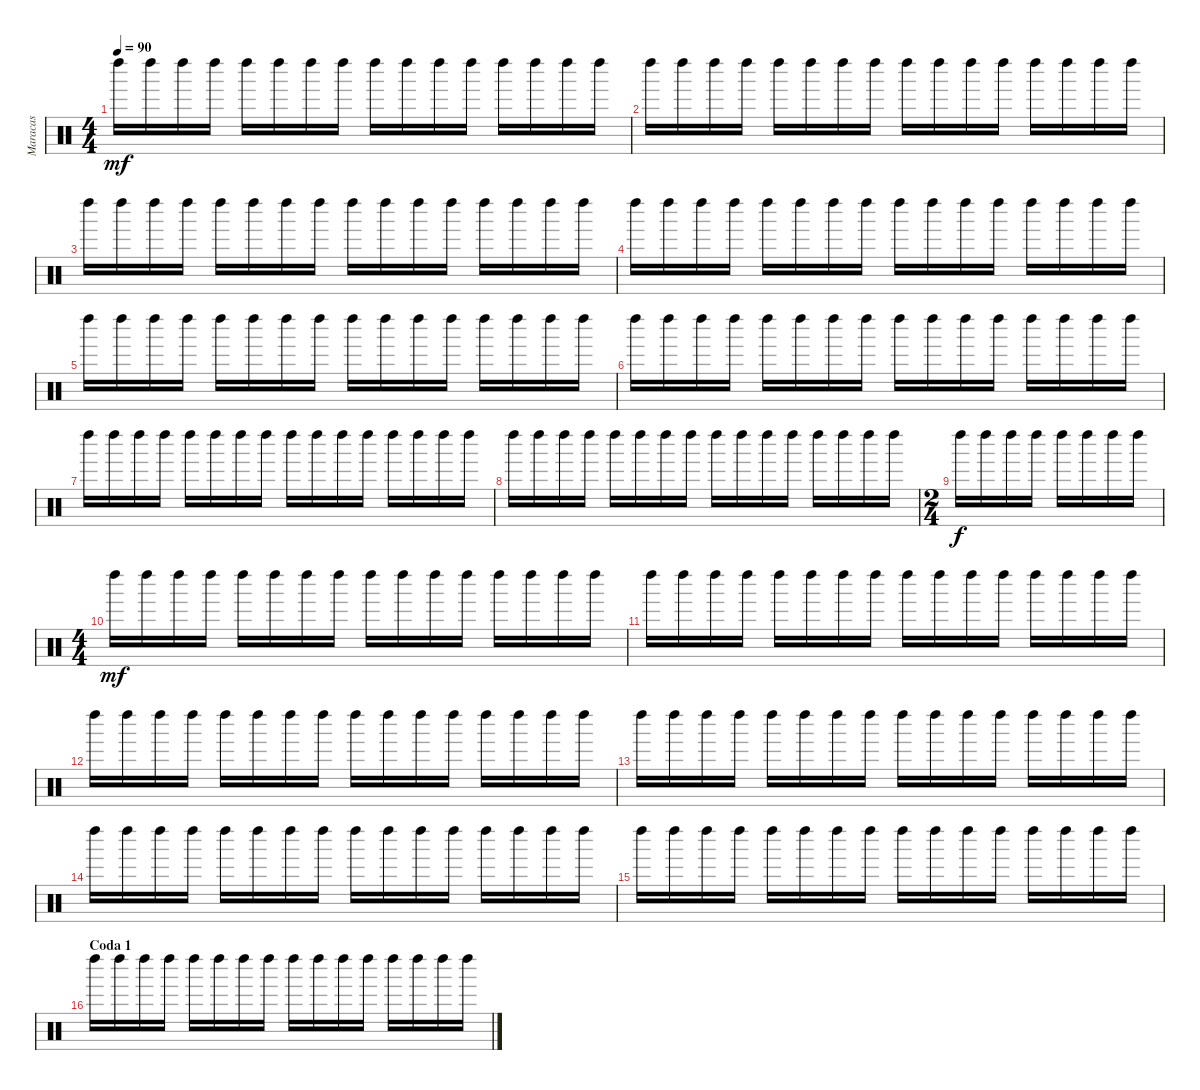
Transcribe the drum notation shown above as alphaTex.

\track ("Maracas" "Maracas") {instrument percussion}
\staff {score}
\articulation defaults
\ts (4 4)
\tempo 90
\clef neutral
\ks c "Left Maraca (hit)".16{dy mf} "Left Maraca (hit)".16 "Left Maraca (hit)".16 "Left Maraca (hit)".16 "Left Maraca (hit)".16 "Left Maraca (hit)".16 "Left Maraca (hit)".16 "Left Maraca (hit)".16 "Left Maraca (hit)".16 "Left Maraca (hit)".16 "Left Maraca (hit)".16 "Left Maraca (hit)".16 "Left Maraca (hit)".16 "Left Maraca (hit)".16 "Left Maraca (hit)".16 "Left Maraca (hit)".16
|
"Left Maraca (hit)".16 "Left Maraca (hit)".16 "Left Maraca (hit)".16 "Left Maraca (hit)".16 "Left Maraca (hit)".16 "Left Maraca (hit)".16 "Left Maraca (hit)".16 "Left Maraca (hit)".16 "Left Maraca (hit)".16 "Left Maraca (hit)".16 "Left Maraca (hit)".16 "Left Maraca (hit)".16 "Left Maraca (hit)".16 "Left Maraca (hit)".16 "Left Maraca (hit)".16 "Left Maraca (hit)".16 |
"Left Maraca (hit)".16 "Left Maraca (hit)".16 "Left Maraca (hit)".16 "Left Maraca (hit)".16 "Left Maraca (hit)".16 "Left Maraca (hit)".16 "Left Maraca (hit)".16 "Left Maraca (hit)".16 "Left Maraca (hit)".16 "Left Maraca (hit)".16 "Left Maraca (hit)".16 "Left Maraca (hit)".16 "Left Maraca (hit)".16 "Left Maraca (hit)".16 "Left Maraca (hit)".16 "Left Maraca (hit)".16 |
"Left Maraca (hit)".16 "Left Maraca (hit)".16 "Left Maraca (hit)".16 "Left Maraca (hit)".16 "Left Maraca (hit)".16 "Left Maraca (hit)".16 "Left Maraca (hit)".16 "Left Maraca (hit)".16 "Left Maraca (hit)".16 "Left Maraca (hit)".16 "Left Maraca (hit)".16 "Left Maraca (hit)".16 "Left Maraca (hit)".16 "Left Maraca (hit)".16 "Left Maraca (hit)".16 "Left Maraca (hit)".16 |
"Left Maraca (hit)".16 "Left Maraca (hit)".16 "Left Maraca (hit)".16 "Left Maraca (hit)".16 "Left Maraca (hit)".16 "Left Maraca (hit)".16 "Left Maraca (hit)".16 "Left Maraca (hit)".16 "Left Maraca (hit)".16 "Left Maraca (hit)".16 "Left Maraca (hit)".16 "Left Maraca (hit)".16 "Left Maraca (hit)".16 "Left Maraca (hit)".16 "Left Maraca (hit)".16 "Left Maraca (hit)".16 |
"Left Maraca (hit)".16 "Left Maraca (hit)".16 "Left Maraca (hit)".16 "Left Maraca (hit)".16 "Left Maraca (hit)".16 "Left Maraca (hit)".16 "Left Maraca (hit)".16 "Left Maraca (hit)".16 "Left Maraca (hit)".16 "Left Maraca (hit)".16 "Left Maraca (hit)".16 "Left Maraca (hit)".16 "Left Maraca (hit)".16 "Left Maraca (hit)".16 "Left Maraca (hit)".16 "Left Maraca (hit)".16 |
"Left Maraca (hit)".16 "Left Maraca (hit)".16 "Left Maraca (hit)".16 "Left Maraca (hit)".16 "Left Maraca (hit)".16 "Left Maraca (hit)".16 "Left Maraca (hit)".16 "Left Maraca (hit)".16 "Left Maraca (hit)".16 "Left Maraca (hit)".16 "Left Maraca (hit)".16 "Left Maraca (hit)".16 "Left Maraca (hit)".16 "Left Maraca (hit)".16 "Left Maraca (hit)".16 "Left Maraca (hit)".16 |
"Left Maraca (hit)".16 "Left Maraca (hit)".16 "Left Maraca (hit)".16 "Left Maraca (hit)".16 "Left Maraca (hit)".16 "Left Maraca (hit)".16 "Left Maraca (hit)".16 "Left Maraca (hit)".16 "Left Maraca (hit)".16 "Left Maraca (hit)".16 "Left Maraca (hit)".16 "Left Maraca (hit)".16 "Left Maraca (hit)".16 "Left Maraca (hit)".16 "Left Maraca (hit)".16 "Left Maraca (hit)".16 |
\ts (2 4)
"Left Maraca (hit)".16{dy f} "Left Maraca (hit)".16 "Left Maraca (hit)".16 "Left Maraca (hit)".16 "Left Maraca (hit)".16 "Left Maraca (hit)".16 "Left Maraca (hit)".16 "Left Maraca (hit)".16 |
\ts (4 4)
"Left Maraca (hit)".16{dy mf} "Left Maraca (hit)".16 "Left Maraca (hit)".16 "Left Maraca (hit)".16 "Left Maraca (hit)".16 "Left Maraca (hit)".16 "Left Maraca (hit)".16 "Left Maraca (hit)".16 "Left Maraca (hit)".16 "Left Maraca (hit)".16 "Left Maraca (hit)".16 "Left Maraca (hit)".16 "Left Maraca (hit)".16 "Left Maraca (hit)".16 "Left Maraca (hit)".16 "Left Maraca (hit)".16 |
"Left Maraca (hit)".16 "Left Maraca (hit)".16 "Left Maraca (hit)".16 "Left Maraca (hit)".16 "Left Maraca (hit)".16 "Left Maraca (hit)".16 "Left Maraca (hit)".16 "Left Maraca (hit)".16 "Left Maraca (hit)".16 "Left Maraca (hit)".16 "Left Maraca (hit)".16 "Left Maraca (hit)".16 "Left Maraca (hit)".16 "Left Maraca (hit)".16 "Left Maraca (hit)".16 "Left Maraca (hit)".16 |
"Left Maraca (hit)".16 "Left Maraca (hit)".16 "Left Maraca (hit)".16 "Left Maraca (hit)".16 "Left Maraca (hit)".16 "Left Maraca (hit)".16 "Left Maraca (hit)".16 "Left Maraca (hit)".16 "Left Maraca (hit)".16 "Left Maraca (hit)".16 "Left Maraca (hit)".16 "Left Maraca (hit)".16 "Left Maraca (hit)".16 "Left Maraca (hit)".16 "Left Maraca (hit)".16 "Left Maraca (hit)".16 |
"Left Maraca (hit)".16 "Left Maraca (hit)".16 "Left Maraca (hit)".16 "Left Maraca (hit)".16 "Left Maraca (hit)".16 "Left Maraca (hit)".16 "Left Maraca (hit)".16 "Left Maraca (hit)".16 "Left Maraca (hit)".16 "Left Maraca (hit)".16 "Left Maraca (hit)".16 "Left Maraca (hit)".16 "Left Maraca (hit)".16 "Left Maraca (hit)".16 "Left Maraca (hit)".16 "Left Maraca (hit)".16 |
"Left Maraca (hit)".16 "Left Maraca (hit)".16 "Left Maraca (hit)".16 "Left Maraca (hit)".16 "Left Maraca (hit)".16 "Left Maraca (hit)".16 "Left Maraca (hit)".16 "Left Maraca (hit)".16 "Left Maraca (hit)".16 "Left Maraca (hit)".16 "Left Maraca (hit)".16 "Left Maraca (hit)".16 "Left Maraca (hit)".16 "Left Maraca (hit)".16 "Left Maraca (hit)".16 "Left Maraca (hit)".16 |
"Left Maraca (hit)".16 "Left Maraca (hit)".16 "Left Maraca (hit)".16 "Left Maraca (hit)".16 "Left Maraca (hit)".16 "Left Maraca (hit)".16 "Left Maraca (hit)".16 "Left Maraca (hit)".16 "Left Maraca (hit)".16 "Left Maraca (hit)".16 "Left Maraca (hit)".16 "Left Maraca (hit)".16 "Left Maraca (hit)".16 "Left Maraca (hit)".16 "Left Maraca (hit)".16 "Left Maraca (hit)".16 |
\section ("" "Coda 1")
"Left Maraca (hit)".16 "Left Maraca (hit)".16 "Left Maraca (hit)".16 "Left Maraca (hit)".16 "Left Maraca (hit)".16 "Left Maraca (hit)".16 "Left Maraca (hit)".16 "Left Maraca (hit)".16 "Left Maraca (hit)".16 "Left Maraca (hit)".16 "Left Maraca (hit)".16 "Left Maraca (hit)".16 "Left Maraca (hit)".16 "Left Maraca (hit)".16 "Left Maraca (hit)".16 "Left Maraca (hit)".16
